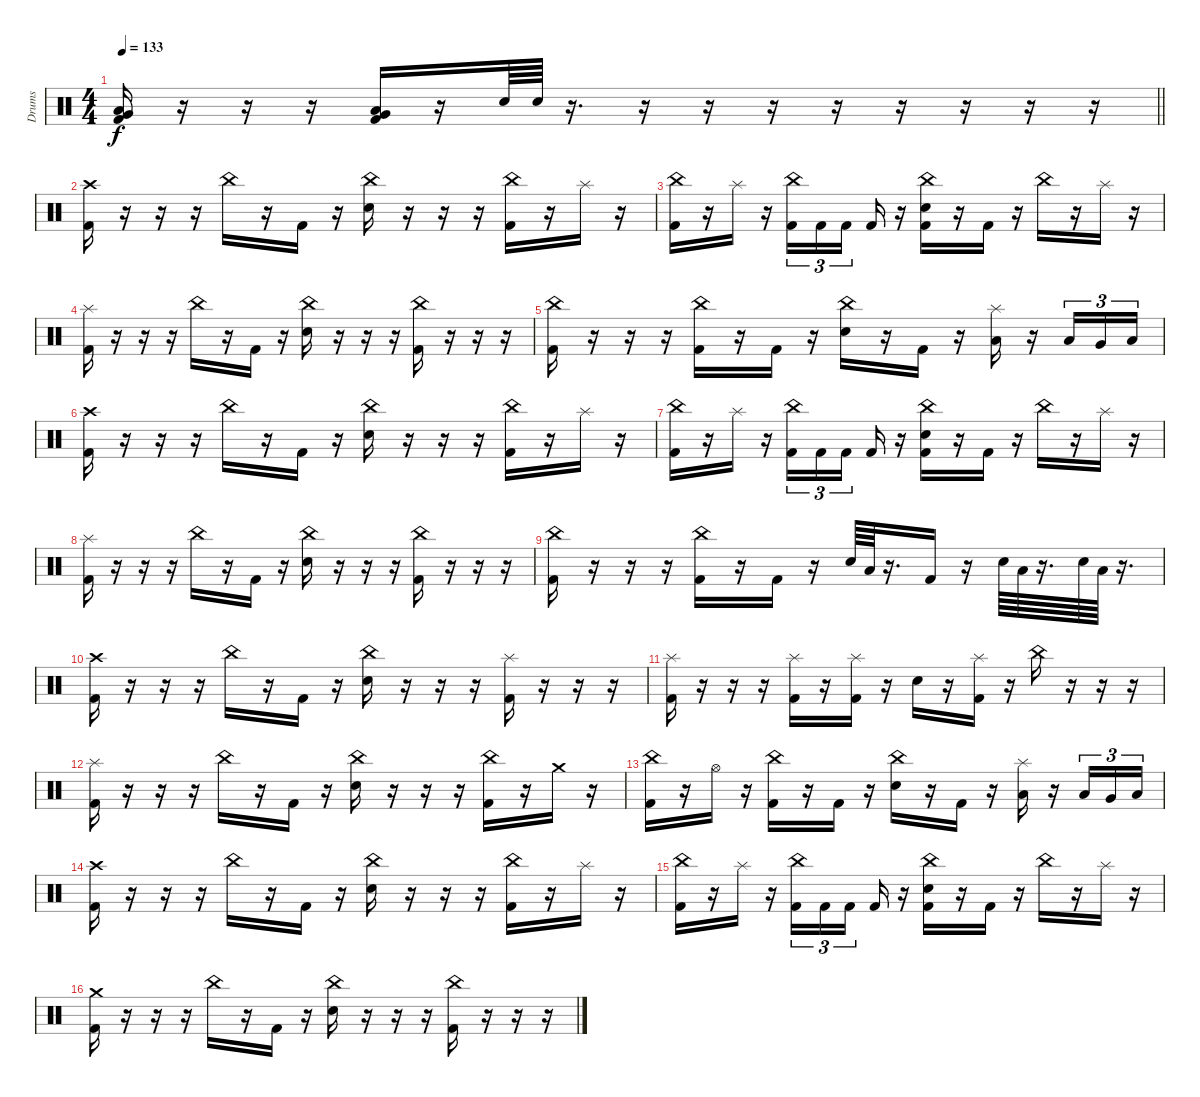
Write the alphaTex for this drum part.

\track ("Drums" "Drums") {instrument percussion}
\staff {score}
\articulation defaults
\ts (4 4)
\tempo 133
\clef neutral
\barLineRight lightlight
\ks c
("Very Low Tom (hit)" "Low Floor Tom (hit)" "Kick (hit) 2").16{dy f} r.16 r.16 r.16 ("Very Low Tom (hit)" "Low Floor Tom (hit)" "Kick (hit) 2").16 r.16 "Electric Snare (hit)".64 "Electric Snare (hit)".64 r.16{d} r.16 r.16 r.16 r.16 r.16 r.16 r.16 r.16 |
\section ("" "")
("Crash high (hit)" "Kick (hit) 2").16 r.16 r.16 r.16 "China (hit)".16 r.16 "Kick (hit) 2".16 r.16 ("China (hit)" "Electric Snare (hit)").16 r.16 r.16 r.16 ("China (hit)" "Kick (hit) 2").16 r.16 "Splash (hit)".16 r.16 |
("China (hit)" "Kick (hit) 2").16 r.16 "Splash (hit)".16 r.16 ("China (hit)" "Kick (hit) 2").16{tu (3 2)} "Kick (hit) 2".16{tu (3 2)} "Kick (hit) 2".16{tu (3 2) beam splitsecondary} "Kick (hit) 2".16 r.16 ("China (hit)" "Electric Snare (hit)" "Kick (hit) 2").16 r.16 "Kick (hit) 2".16 r.16 "China (hit)".16 r.16 "Splash (hit)".16 r.16 |
("Splash (hit)" "Kick (hit) 2").16 r.16 r.16 r.16 "China (hit)".16 r.16 "Kick (hit) 2".16 r.16 ("China (hit)" "Electric Snare (hit)").16 r.16 r.16 r.16 ("China (hit)" "Kick (hit) 2").16 r.16 r.16 r.16 |
("China (hit)" "Kick (hit) 2").16 r.16 r.16 r.16 ("China (hit)" "Kick (hit) 2").16 r.16 "Kick (hit) 2".16 r.16 ("China (hit)" "Electric Snare (hit)").16 r.16 "Kick (hit) 2".16 r.16 ("Splash (hit)" "Low Tom (hit)").16 r.16 "Low Tom (hit)".16{tu (3 2)} "Very Low Tom (hit)".16{tu (3 2)} "Low Floor Tom (hit)".16{tu (3 2)} |
("Crash high (hit)" "Kick (hit) 2").16 r.16 r.16 r.16 "China (hit)".16 r.16 "Kick (hit) 2".16 r.16 ("China (hit)" "Electric Snare (hit)").16 r.16 r.16 r.16 ("China (hit)" "Kick (hit) 2").16 r.16 "Splash (hit)".16 r.16 |
("China (hit)" "Kick (hit) 2").16 r.16 "Splash (hit)".16 r.16 ("China (hit)" "Kick (hit) 2").16{tu (3 2)} "Kick (hit) 2".16{tu (3 2)} "Kick (hit) 2".16{tu (3 2) beam splitsecondary} "Kick (hit) 2".16 r.16 ("China (hit)" "Electric Snare (hit)" "Kick (hit) 2").16 r.16 "Kick (hit) 2".16 r.16 "China (hit)".16 r.16 "Splash (hit)".16 r.16 |
("Splash (hit)" "Kick (hit) 2").16 r.16 r.16 r.16 "China (hit)".16 r.16 "Kick (hit) 2".16 r.16 ("China (hit)" "Electric Snare (hit)").16 r.16 r.16 r.16 ("China (hit)" "Kick (hit) 2").16 r.16 r.16 r.16 |
("China (hit)" "Kick (hit) 2").16 r.16 r.16 r.16 ("China (hit)" "Kick (hit) 2").16 r.16 "Kick (hit) 2".16 r.16 "Electric Snare (hit)".64 "Low Tom (hit)".64 r.16{d} "Kick (hit) 2".16 r.16 "Electric Snare (hit)".64 "Low Tom (hit)".64 r.16{d} "Electric Snare (hit)".64 "Low Tom (hit)".64 r.16{d} |
("Crash high (hit)" "Kick (hit) 2").16 r.16 r.16 r.16 "China (hit)".16 r.16 "Kick (hit) 2".16 r.16 ("China (hit)" "Electric Snare (hit)").16 r.16 r.16 r.16 ("Splash (hit)" "Kick (hit) 2").16 r.16 r.16 r.16 |
("Splash (hit)" "Kick (hit) 2").16 r.16 r.16 r.16 ("Splash (hit)" "Kick (hit) 2").16 r.16 ("Splash (hit)" "Kick (hit) 2").16 r.16 "Electric Snare (hit)".16 r.16 ("Splash (hit)" "Kick (hit) 2").16 r.16 "China (hit)".16 r.16 r.16 r.16 |
("Splash (hit)" "Kick (hit) 2").16 r.16 r.16 r.16 "China (hit)".16 r.16 "Kick (hit) 2".16 r.16 ("China (hit)" "Electric Snare (hit)").16 r.16 r.16 r.16 ("China (hit)" "Kick (hit) 2").16 r.16 "Crash medium (hit)".16 r.16 |
("China (hit)" "Kick (hit) 2").16 r.16 "Hi-Hat (open)".16 r.16 ("China (hit)" "Kick (hit) 2").16 r.16 "Kick (hit) 2".16 r.16 ("China (hit)" "Electric Snare (hit)").16 r.16 "Kick (hit) 2".16 r.16 ("Splash (hit)" "Low Tom (hit)").16 r.16 "Low Tom (hit)".16{tu (3 2)} "Very Low Tom (hit)".16{tu (3 2)} "Low Floor Tom (hit)".16{tu (3 2)} |
("Crash high (hit)" "Kick (hit) 2").16 r.16 r.16 r.16 "China (hit)".16 r.16 "Kick (hit) 2".16 r.16 ("China (hit)" "Electric Snare (hit)").16 r.16 r.16 r.16 ("China (hit)" "Kick (hit) 2").16 r.16 "Splash (hit)".16 r.16 |
("China (hit)" "Kick (hit) 2").16 r.16 "Splash (hit)".16 r.16 ("China (hit)" "Kick (hit) 2").16{tu (3 2)} "Kick (hit) 2".16{tu (3 2)} "Kick (hit) 2".16{tu (3 2) beam splitsecondary} "Kick (hit) 2".16 r.16 ("China (hit)" "Electric Snare (hit)" "Kick (hit) 2").16 r.16 "Kick (hit) 2".16 r.16 "China (hit)".16 r.16 "Splash (hit)".16 r.16 |
("Crash medium (hit)" "Kick (hit) 2").16 r.16 r.16 r.16 "China (hit)".16 r.16 "Kick (hit) 2".16 r.16 ("China (hit)" "Electric Snare (hit)").16 r.16 r.16 r.16 ("China (hit)" "Kick (hit) 2").16 r.16 r.16 r.16
